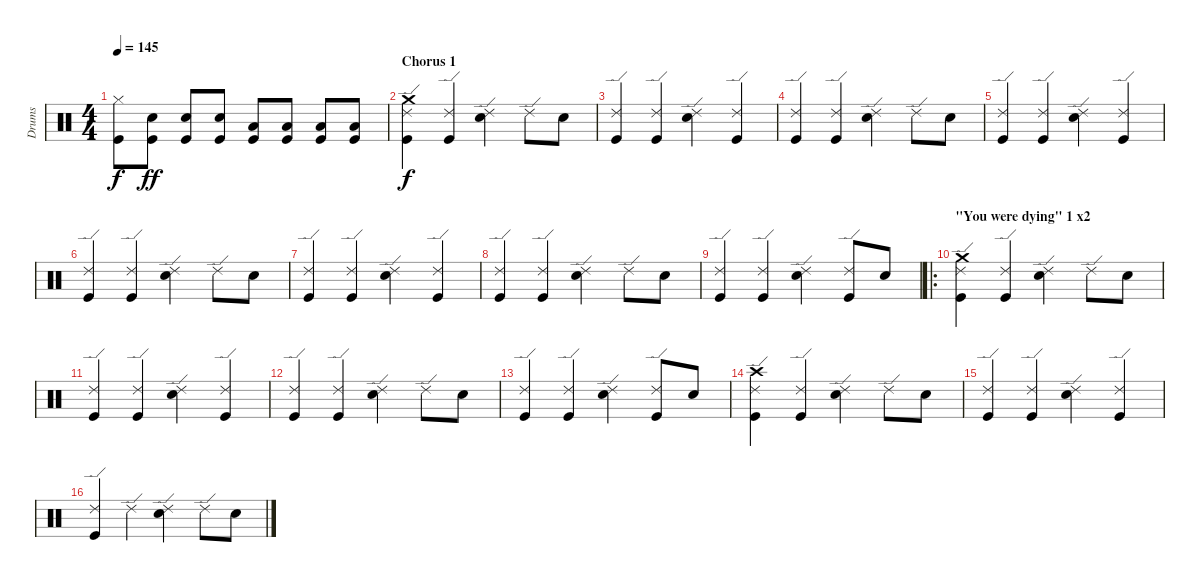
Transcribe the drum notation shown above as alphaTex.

\track ("Drums" "Drums") {instrument percussion}
\staff {score}
\articulation defaults
\ts (4 4)
\tempo 145
\clef neutral
\ks c
("Hi-Hat (closed)" "Kick (hit)").8{dy f} ("Electric Snare (hit)" "Kick (hit)").8{dy ff} ("Electric Snare (hit)" "Kick (hit)").8 ("Electric Snare (hit)" "Kick (hit)").8 ("Low Tom (hit)" "Kick (hit)").8 ("Low Tom (hit)" "Kick (hit)").8 ("Low Tom (hit)" "Kick (hit)").8 ("Low Tom (hit)" "Kick (hit)").8 |
\section ("" "Chorus 1")
("Ride (edge) 2" "Crash medium (hit)" "Kick (hit)").4{dy f} ("Ride (edge) 2" "Kick (hit)").4 ("Ride (edge) 2" "Electric Snare (hit)").4 "Ride (edge) 2".8 "Electric Snare (hit)".8 |
("Ride (edge) 2" "Kick (hit)").4 ("Ride (edge) 2" "Kick (hit)").4 ("Ride (edge) 2" "Electric Snare (hit)").4 ("Ride (edge) 2" "Kick (hit)").4 |
("Ride (edge) 2" "Kick (hit)").4 ("Ride (edge) 2" "Kick (hit)").4 ("Ride (edge) 2" "Electric Snare (hit)").4 "Ride (edge) 2".8 "Electric Snare (hit)".8 |
("Ride (edge) 2" "Kick (hit)").4 ("Ride (edge) 2" "Kick (hit)").4 ("Ride (edge) 2" "Electric Snare (hit)").4 ("Ride (edge) 2" "Kick (hit)").4 |
("Ride (edge) 2" "Kick (hit)").4 ("Ride (edge) 2" "Kick (hit)").4 ("Ride (edge) 2" "Electric Snare (hit)").4 "Ride (edge) 2".8 "Electric Snare (hit)".8 |
("Ride (edge) 2" "Kick (hit)").4 ("Ride (edge) 2" "Kick (hit)").4 ("Ride (edge) 2" "Electric Snare (hit)").4 ("Ride (edge) 2" "Kick (hit)").4 |
("Ride (edge) 2" "Kick (hit)").4 ("Ride (edge) 2" "Kick (hit)").4 ("Ride (edge) 2" "Electric Snare (hit)").4 "Ride (edge) 2".8 "Electric Snare (hit)".8 |
("Ride (edge) 2" "Kick (hit)").4 ("Ride (edge) 2" "Kick (hit)").4 ("Ride (edge) 2" "Electric Snare (hit)").4 ("Ride (edge) 2" "Kick (hit)").8 "Electric Snare (hit)".8 |
\ro
\section ("" "\"You were dying\" 1 x2")
("Ride (edge) 2" "Crash medium (hit)" "Kick (hit)").4 ("Ride (edge) 2" "Kick (hit)").4 ("Ride (edge) 2" "Electric Snare (hit)").4 "Ride (edge) 2".8 "Electric Snare (hit)".8 |
("Ride (edge) 2" "Kick (hit)").4 ("Ride (edge) 2" "Kick (hit)").4 ("Ride (edge) 2" "Electric Snare (hit)").4 ("Ride (edge) 2" "Kick (hit)").4 |
("Ride (edge) 2" "Kick (hit)").4 ("Ride (edge) 2" "Kick (hit)").4 ("Ride (edge) 2" "Electric Snare (hit)").4 "Ride (edge) 2".8 "Electric Snare (hit)".8 |
("Ride (edge) 2" "Kick (hit)").4 ("Ride (edge) 2" "Kick (hit)").4 ("Ride (edge) 2" "Electric Snare (hit)").4 ("Ride (edge) 2" "Kick (hit)").8 "Electric Snare (hit)".8 |
("Ride (edge) 2" "Crash high (hit)" "Kick (hit)").4 ("Ride (edge) 2" "Kick (hit)").4 ("Ride (edge) 2" "Electric Snare (hit)").4 "Ride (edge) 2".8 "Electric Snare (hit)".8 |
("Ride (edge) 2" "Kick (hit)").4 ("Ride (edge) 2" "Kick (hit)").4 ("Ride (edge) 2" "Electric Snare (hit)").4 ("Ride (edge) 2" "Kick (hit)").4 |
("Ride (edge) 2" "Kick (hit)").4 "Ride (edge) 2".4 ("Ride (edge) 2" "Electric Snare (hit)").4 "Ride (edge) 2".8 "Electric Snare (hit)".8
